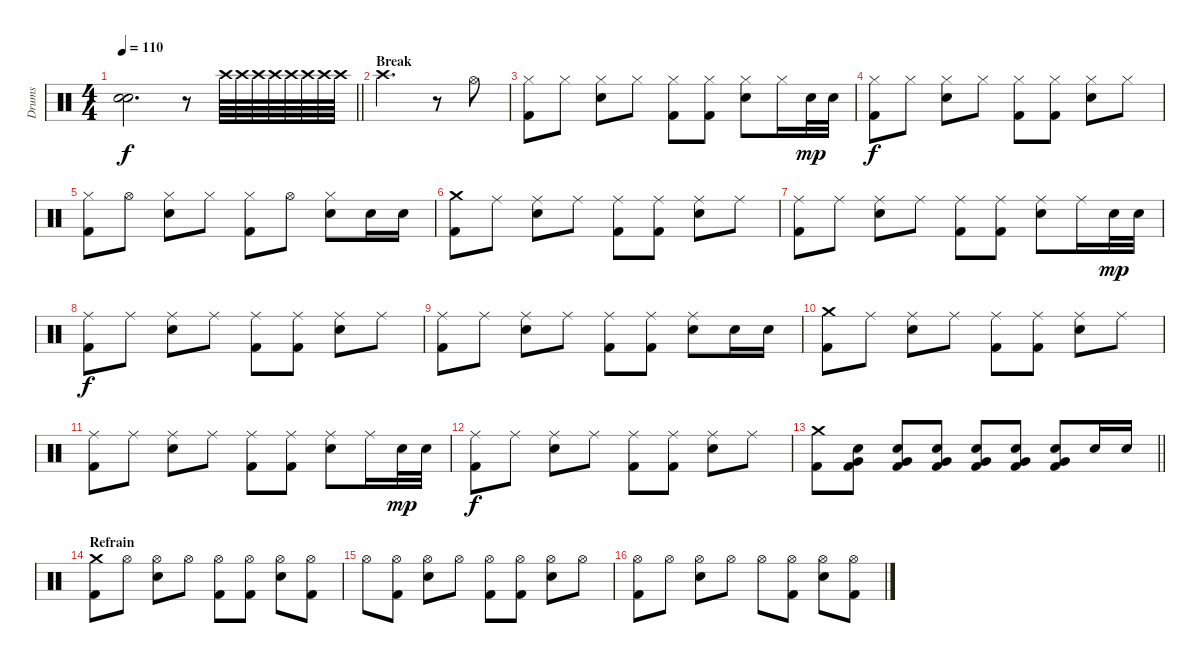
\track ("Drums" "Drums") {instrument percussion}
\staff {score}
\articulation defaults
\ts (4 4)
\tempo 110
\clef neutral
\barLineRight lightlight
\ks c
("Snare (hit)"{t} "Snare (hit)"{t}).2{d dy f volume 3} r.8{volume 14} "Crash high (hit)".64 "Crash high (hit)".64 "Crash high (hit)".64 "Crash high (hit)".64 "Crash high (hit)".64 "Crash high (hit)".64 "Crash high (hit)".64 "Crash high (hit)".64 |
\section ("" "Break")
"Crash high (hit)".2{d} r.8 "Hi-Hat (open)".8 |
("Hi-Hat (closed)" "Kick (hit) 2").8 "Hi-Hat (closed)".8 ("Hi-Hat (closed)" "Electric Snare (hit)").8 "Hi-Hat (closed)".8 ("Hi-Hat (closed)" "Kick (hit) 2").8 ("Hi-Hat (closed)" "Kick (hit) 2").8 ("Hi-Hat (closed)" "Electric Snare (hit)").8 "Hi-Hat (closed)".16 "Electric Snare (hit)".32{dy mp} "Electric Snare (hit)".32 |
("Hi-Hat (closed)" "Kick (hit) 2").8{dy f} "Hi-Hat (closed)".8 ("Hi-Hat (closed)" "Electric Snare (hit)").8 "Hi-Hat (closed)".8 ("Hi-Hat (closed)" "Kick (hit) 2").8 ("Hi-Hat (closed)" "Kick (hit) 2").8 ("Hi-Hat (closed)" "Electric Snare (hit)").8 "Hi-Hat (closed)".8 |
("Hi-Hat (closed)" "Kick (hit) 2").8 "Hi-Hat (open)".8 ("Hi-Hat (closed)" "Electric Snare (hit)").8 "Hi-Hat (closed)".8 ("Hi-Hat (closed)" "Kick (hit) 2").8 "Hi-Hat (open)".8 ("Hi-Hat (closed)" "Electric Snare (hit)").8 "Electric Snare (hit)".16 "Electric Snare (hit)".16 |
("Crash medium (hit)" "Kick (hit) 2").8 "Ride (middle)".8 ("Ride (middle)" "Electric Snare (hit)").8 "Ride (middle)".8 ("Ride (middle)" "Kick (hit) 2").8 ("Ride (middle)" "Kick (hit) 2").8 ("Ride (middle)" "Electric Snare (hit)").8 "Ride (middle)".8 |
("Ride (middle)" "Kick (hit) 2").8 "Ride (middle)".8 ("Ride (middle)" "Electric Snare (hit)").8 "Ride (middle)".8 ("Ride (middle)" "Kick (hit) 2").8 ("Ride (middle)" "Kick (hit) 2").8 ("Ride (middle)" "Electric Snare (hit)").8 "Ride (middle)".16 "Electric Snare (hit)".32{dy mp} "Electric Snare (hit)".32 |
("Ride (middle)" "Kick (hit) 2").8{dy f} "Ride (middle)".8 ("Ride (middle)" "Electric Snare (hit)").8 "Ride (middle)".8 ("Ride (middle)" "Kick (hit) 2").8 ("Ride (middle)" "Kick (hit) 2").8 ("Ride (middle)" "Electric Snare (hit)").8 "Ride (middle)".8 |
("Ride (middle)" "Kick (hit) 2").8 "Ride (middle)".8 ("Ride (middle)" "Electric Snare (hit)").8 "Ride (middle)".8 ("Ride (middle)" "Kick (hit) 2").8 ("Ride (middle)" "Kick (hit) 2").8 ("Ride (middle)" "Electric Snare (hit)").8 "Electric Snare (hit)".16 "Electric Snare (hit)".16 |
("Crash medium (hit)" "Kick (hit) 2").8 "Ride (middle)".8 ("Ride (middle)" "Electric Snare (hit)").8 "Ride (middle)".8 ("Ride (middle)" "Kick (hit) 2").8 ("Ride (middle)" "Kick (hit) 2").8 ("Ride (middle)" "Electric Snare (hit)").8 "Ride (middle)".8 |
("Ride (middle)" "Kick (hit) 2").8 "Ride (middle)".8 ("Ride (middle)" "Electric Snare (hit)").8 "Ride (middle)".8 ("Ride (middle)" "Kick (hit) 2").8 ("Ride (middle)" "Kick (hit) 2").8 ("Ride (middle)" "Electric Snare (hit)").8 "Ride (middle)".16 "Electric Snare (hit)".32{dy mp} "Electric Snare (hit)".32 |
("Ride (middle)" "Kick (hit) 2").8{dy f} "Ride (middle)".8 ("Ride (middle)" "Electric Snare (hit)").8 "Ride (middle)".8 ("Ride (middle)" "Kick (hit) 2").8 ("Ride (middle)" "Kick (hit) 2").8 ("Ride (middle)" "Electric Snare (hit)").8 "Ride (middle)".8 |
\barLineRight lightlight
("Crash medium (hit)" "Kick (hit) 2").8 ("Electric Snare (hit)" "Kick (hit) 2" "Very Low Tom (hit)").8{volume 9} ("Electric Snare (hit)" "Kick (hit) 2" "Very Low Tom (hit)").8{volume 16} ("Electric Snare (hit)" "Kick (hit) 2" "Very Low Tom (hit)").8 ("Electric Snare (hit)" "Kick (hit) 2" "Very Low Tom (hit)").8 ("Electric Snare (hit)" "Kick (hit) 2" "Very Low Tom (hit)").8 ("Electric Snare (hit)" "Kick (hit) 2" "Very Low Tom (hit)").8 "Electric Snare (hit)".16 "Electric Snare (hit)".16 |
\section ("" "Refrain")
("Crash medium (hit)" "Kick (hit) 2").8{volume 14} "Hi-Hat (open)".8 ("Hi-Hat (open)" "Electric Snare (hit)").8 "Hi-Hat (open)".8 ("Hi-Hat (open)" "Kick (hit) 2").8 ("Hi-Hat (open)" "Kick (hit) 2").8 ("Hi-Hat (open)" "Electric Snare (hit)").8 ("Hi-Hat (open)" "Kick (hit) 2").8 |
"Hi-Hat (open)".8 ("Hi-Hat (open)" "Kick (hit) 2").8 ("Hi-Hat (open)" "Electric Snare (hit)").8 "Hi-Hat (open)".8 ("Hi-Hat (open)" "Kick (hit) 2").8 ("Hi-Hat (open)" "Kick (hit) 2").8 ("Hi-Hat (open)" "Electric Snare (hit)").8 "Hi-Hat (open)".8 |
("Hi-Hat (open)" "Kick (hit) 2").8 "Hi-Hat (open)".8 ("Hi-Hat (open)" "Electric Snare (hit)").8 "Hi-Hat (open)".8 "Hi-Hat (open)".8 ("Hi-Hat (open)" "Kick (hit) 2").8 ("Hi-Hat (open)" "Electric Snare (hit)").8 ("Hi-Hat (open)" "Kick (hit) 2").8
